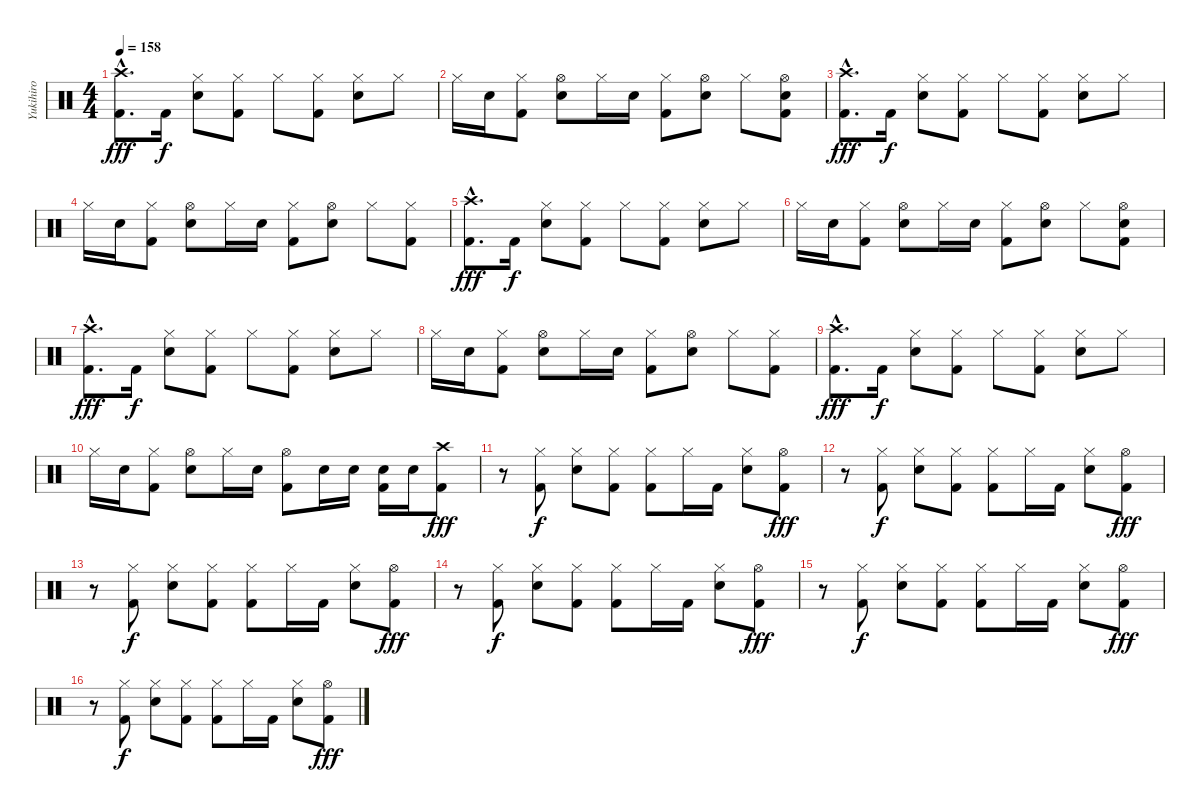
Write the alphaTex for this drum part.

\track ("Yukihiro" "Yukihiro") {instrument percussion}
\staff {score}
\articulation defaults
\ts (4 4)
\tempo 158
\clef neutral
\ks c
("Crash high (hit)"{hac} "Kick (hit) 2"{hac}).8{d dy fff} "Kick (hit) 2".16{dy f} ("Hi-Hat (closed)" "Snare (hit) 2").8 ("Hi-Hat (closed)" "Kick (hit) 2").8 "Hi-Hat (closed)".8 ("Hi-Hat (closed)" "Kick (hit) 2").8 ("Hi-Hat (closed)" "Snare (hit) 2").8 "Hi-Hat (closed)".8 |
"Hi-Hat (closed)".16 "Snare (hit) 2".16 ("Hi-Hat (closed)" "Kick (hit) 2").8 ("Hi-Hat (open)" "Snare (hit) 2").8 "Hi-Hat (closed)".16 "Snare (hit) 2".16 ("Hi-Hat (closed)" "Kick (hit) 2").8 ("Hi-Hat (open)" "Snare (hit) 2").8 "Hi-Hat (closed)".8 ("Hi-Hat (open)" "Snare (hit) 2" "Kick (hit) 2").8 |
("Crash high (hit)"{hac} "Kick (hit) 2"{hac}).8{d dy fff} "Kick (hit) 2".16{dy f} ("Hi-Hat (closed)" "Snare (hit) 2").8 ("Hi-Hat (closed)" "Kick (hit) 2").8 "Hi-Hat (closed)".8 ("Hi-Hat (closed)" "Kick (hit) 2").8 ("Hi-Hat (closed)" "Snare (hit) 2").8 "Hi-Hat (closed)".8 |
"Hi-Hat (closed)".16 "Snare (hit) 2".16 ("Hi-Hat (closed)" "Kick (hit) 2").8 ("Hi-Hat (open)" "Snare (hit) 2").8 "Hi-Hat (closed)".16 "Snare (hit) 2".16 ("Hi-Hat (closed)" "Kick (hit) 2").8 ("Hi-Hat (open)" "Snare (hit) 2").8 "Hi-Hat (closed)".8 ("Hi-Hat (closed)" "Kick (hit) 2").8 |
("Crash high (hit)"{hac} "Kick (hit) 2"{hac}).8{d dy fff} "Kick (hit) 2".16{dy f} ("Hi-Hat (closed)" "Snare (hit) 2").8 ("Hi-Hat (closed)" "Kick (hit) 2").8 "Hi-Hat (closed)".8 ("Hi-Hat (closed)" "Kick (hit) 2").8 ("Hi-Hat (closed)" "Snare (hit) 2").8 "Hi-Hat (closed)".8 |
"Hi-Hat (closed)".16 "Snare (hit) 2".16 ("Hi-Hat (closed)" "Kick (hit) 2").8 ("Hi-Hat (open)" "Snare (hit) 2").8 "Hi-Hat (closed)".16 "Snare (hit) 2".16 ("Hi-Hat (closed)" "Kick (hit) 2").8 ("Hi-Hat (open)" "Snare (hit) 2").8 "Hi-Hat (closed)".8 ("Hi-Hat (open)" "Snare (hit) 2" "Kick (hit) 2").8 |
("Crash high (hit)"{hac} "Kick (hit) 2"{hac}).8{d dy fff} "Kick (hit) 2".16{dy f} ("Hi-Hat (closed)" "Snare (hit) 2").8 ("Hi-Hat (closed)" "Kick (hit) 2").8 "Hi-Hat (closed)".8 ("Hi-Hat (closed)" "Kick (hit) 2").8 ("Hi-Hat (closed)" "Snare (hit) 2").8 "Hi-Hat (closed)".8 |
"Hi-Hat (closed)".16 "Snare (hit) 2".16 ("Hi-Hat (closed)" "Kick (hit) 2").8 ("Hi-Hat (open)" "Snare (hit) 2").8 "Hi-Hat (closed)".16 "Snare (hit) 2".16 ("Hi-Hat (closed)" "Kick (hit) 2").8 ("Hi-Hat (open)" "Snare (hit) 2").8 "Hi-Hat (closed)".8 ("Hi-Hat (closed)" "Kick (hit) 2").8 |
("Crash high (hit)"{hac} "Kick (hit) 2"{hac}).8{d dy fff} "Kick (hit) 2".16{dy f} ("Hi-Hat (closed)" "Snare (hit) 2").8 ("Hi-Hat (closed)" "Kick (hit) 2").8 "Hi-Hat (closed)".8 ("Hi-Hat (closed)" "Kick (hit) 2").8 ("Hi-Hat (closed)" "Snare (hit) 2").8 "Hi-Hat (closed)".8 |
"Hi-Hat (closed)".16 "Snare (hit) 2".16 ("Hi-Hat (closed)" "Kick (hit) 2").8 ("Hi-Hat (open)" "Snare (hit) 2").8 "Hi-Hat (closed)".16 "Snare (hit) 2".16 ("Hi-Hat (open)" "Kick (hit) 2").8 "Snare (hit) 2".16 "Snare (hit) 2".16 ("Snare (hit) 2" "Kick (hit) 2").16 "Snare (hit) 2".16 ("Crash high (hit)" "Kick (hit) 2").8{dy fff} |
r.8 ("Hi-Hat (closed)" "Kick (hit) 2").8{dy f} ("Hi-Hat (closed)" "Snare (hit) 2").8 ("Hi-Hat (closed)" "Kick (hit) 2").8 ("Hi-Hat (closed)" "Kick (hit) 2").8 "Hi-Hat (closed)".16 "Kick (hit) 2".16 ("Hi-Hat (closed)" "Snare (hit) 2").8 ("Hi-Hat (open)" "Kick (hit) 2").8{dy fff} |
r.8 ("Hi-Hat (closed)" "Kick (hit) 2").8{dy f} ("Hi-Hat (closed)" "Snare (hit) 2").8 ("Hi-Hat (closed)" "Kick (hit) 2").8 ("Hi-Hat (closed)" "Kick (hit) 2").8 "Hi-Hat (closed)".16 "Kick (hit) 2".16 ("Hi-Hat (closed)" "Snare (hit) 2").8 ("Hi-Hat (open)" "Kick (hit) 2").8{dy fff} |
r.8 ("Hi-Hat (closed)" "Kick (hit) 2").8{dy f} ("Hi-Hat (closed)" "Snare (hit) 2").8 ("Hi-Hat (closed)" "Kick (hit) 2").8 ("Hi-Hat (closed)" "Kick (hit) 2").8 "Hi-Hat (closed)".16 "Kick (hit) 2".16 ("Hi-Hat (closed)" "Snare (hit) 2").8 ("Hi-Hat (open)" "Kick (hit) 2").8{dy fff} |
r.8 ("Hi-Hat (closed)" "Kick (hit) 2").8{dy f} ("Hi-Hat (closed)" "Snare (hit) 2").8 ("Hi-Hat (closed)" "Kick (hit) 2").8 ("Hi-Hat (closed)" "Kick (hit) 2").8 "Hi-Hat (closed)".16 "Kick (hit) 2".16 ("Hi-Hat (closed)" "Snare (hit) 2").8 ("Hi-Hat (open)" "Kick (hit) 2").8{dy fff} |
r.8 ("Hi-Hat (closed)" "Kick (hit) 2").8{dy f} ("Hi-Hat (closed)" "Snare (hit) 2").8 ("Hi-Hat (closed)" "Kick (hit) 2").8 ("Hi-Hat (closed)" "Kick (hit) 2").8 "Hi-Hat (closed)".16 "Kick (hit) 2".16 ("Hi-Hat (closed)" "Snare (hit) 2").8 ("Hi-Hat (open)" "Kick (hit) 2").8{dy fff} |
r.8 ("Hi-Hat (closed)" "Kick (hit) 2").8{dy f} ("Hi-Hat (closed)" "Snare (hit) 2").8 ("Hi-Hat (closed)" "Kick (hit) 2").8 ("Hi-Hat (closed)" "Kick (hit) 2").8 "Hi-Hat (closed)".16 "Kick (hit) 2".16 ("Hi-Hat (closed)" "Snare (hit) 2").8 ("Hi-Hat (open)" "Kick (hit) 2").8{dy fff}
